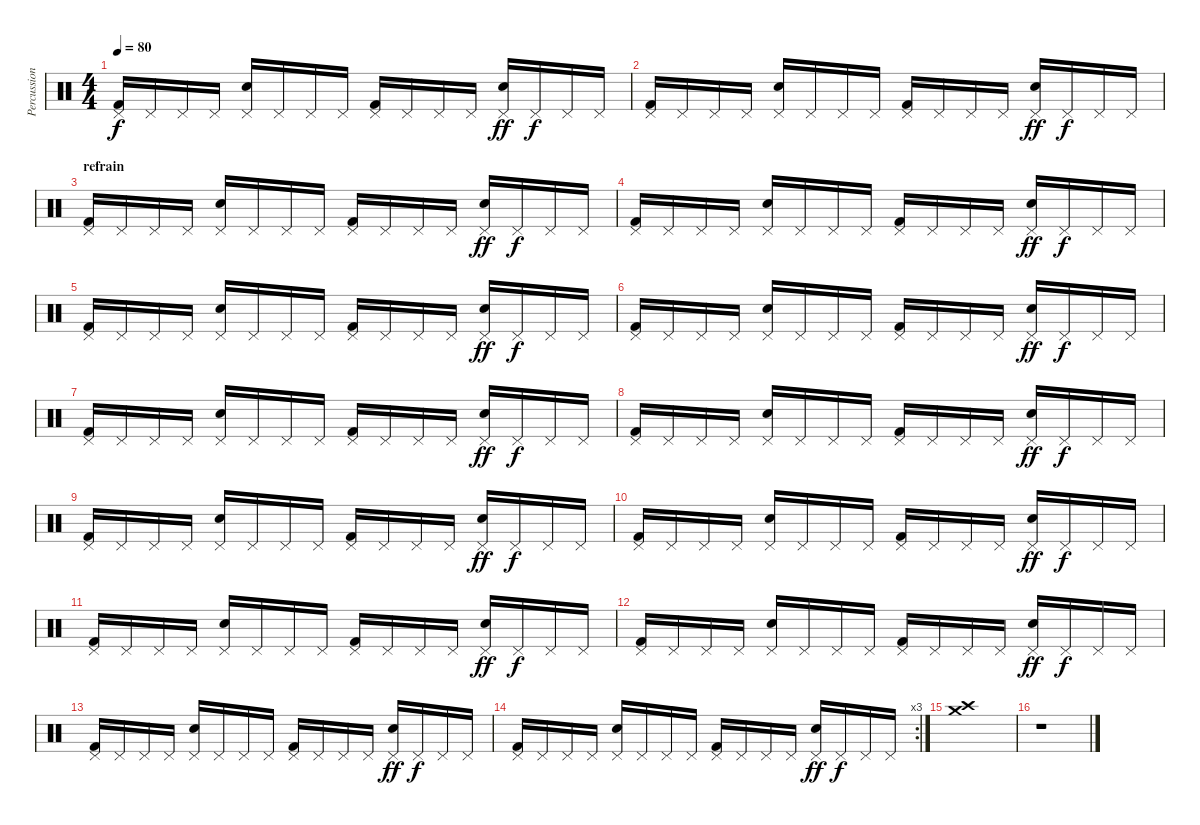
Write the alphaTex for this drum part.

\track ("Percussions" "Percussion") {instrument percussion}
\staff {score}
\articulation defaults
\ts (4 4)
\tempo 80
\clef neutral
\ks c
("Pedal Hi-Hat (hit)" "Kick (hit) 2").16{dy f} "Pedal Hi-Hat (hit)".16 "Pedal Hi-Hat (hit)".16 "Pedal Hi-Hat (hit)".16 ("Pedal Hi-Hat (hit)" "Electric Snare (hit)").16 "Pedal Hi-Hat (hit)".16 "Pedal Hi-Hat (hit)".16 "Pedal Hi-Hat (hit)".16 ("Pedal Hi-Hat (hit)" "Kick (hit) 2").16 "Pedal Hi-Hat (hit)".16 "Pedal Hi-Hat (hit)".16 "Pedal Hi-Hat (hit)".16 ("Pedal Hi-Hat (hit)" "Electric Snare (hit)").16{dy ff} "Pedal Hi-Hat (hit)".16{dy f} "Pedal Hi-Hat (hit)".16 "Pedal Hi-Hat (hit)".16 |
("Pedal Hi-Hat (hit)" "Kick (hit) 2").16 "Pedal Hi-Hat (hit)".16 "Pedal Hi-Hat (hit)".16 "Pedal Hi-Hat (hit)".16 ("Pedal Hi-Hat (hit)" "Electric Snare (hit)").16 "Pedal Hi-Hat (hit)".16 "Pedal Hi-Hat (hit)".16 "Pedal Hi-Hat (hit)".16 ("Pedal Hi-Hat (hit)" "Kick (hit) 2").16 "Pedal Hi-Hat (hit)".16 "Pedal Hi-Hat (hit)".16 "Pedal Hi-Hat (hit)".16 ("Pedal Hi-Hat (hit)" "Electric Snare (hit)").16{dy ff} "Pedal Hi-Hat (hit)".16{dy f} "Pedal Hi-Hat (hit)".16 "Pedal Hi-Hat (hit)".16 |
\section ("" "refrain")
("Pedal Hi-Hat (hit)" "Kick (hit) 2").16 "Pedal Hi-Hat (hit)".16 "Pedal Hi-Hat (hit)".16 "Pedal Hi-Hat (hit)".16 ("Pedal Hi-Hat (hit)" "Electric Snare (hit)").16 "Pedal Hi-Hat (hit)".16 "Pedal Hi-Hat (hit)".16 "Pedal Hi-Hat (hit)".16 ("Pedal Hi-Hat (hit)" "Kick (hit) 2").16 "Pedal Hi-Hat (hit)".16 "Pedal Hi-Hat (hit)".16 "Pedal Hi-Hat (hit)".16 ("Pedal Hi-Hat (hit)" "Electric Snare (hit)").16{dy ff} "Pedal Hi-Hat (hit)".16{dy f} "Pedal Hi-Hat (hit)".16 "Pedal Hi-Hat (hit)".16 |
("Pedal Hi-Hat (hit)" "Kick (hit) 2").16 "Pedal Hi-Hat (hit)".16 "Pedal Hi-Hat (hit)".16 "Pedal Hi-Hat (hit)".16 ("Pedal Hi-Hat (hit)" "Electric Snare (hit)").16 "Pedal Hi-Hat (hit)".16 "Pedal Hi-Hat (hit)".16 "Pedal Hi-Hat (hit)".16 ("Pedal Hi-Hat (hit)" "Kick (hit) 2").16 "Pedal Hi-Hat (hit)".16 "Pedal Hi-Hat (hit)".16 "Pedal Hi-Hat (hit)".16 ("Pedal Hi-Hat (hit)" "Electric Snare (hit)").16{dy ff} "Pedal Hi-Hat (hit)".16{dy f} "Pedal Hi-Hat (hit)".16 "Pedal Hi-Hat (hit)".16 |
("Pedal Hi-Hat (hit)" "Kick (hit) 2").16 "Pedal Hi-Hat (hit)".16 "Pedal Hi-Hat (hit)".16 "Pedal Hi-Hat (hit)".16 ("Pedal Hi-Hat (hit)" "Electric Snare (hit)").16 "Pedal Hi-Hat (hit)".16 "Pedal Hi-Hat (hit)".16 "Pedal Hi-Hat (hit)".16 ("Pedal Hi-Hat (hit)" "Kick (hit) 2").16 "Pedal Hi-Hat (hit)".16 "Pedal Hi-Hat (hit)".16 "Pedal Hi-Hat (hit)".16 ("Pedal Hi-Hat (hit)" "Electric Snare (hit)").16{dy ff} "Pedal Hi-Hat (hit)".16{dy f} "Pedal Hi-Hat (hit)".16 "Pedal Hi-Hat (hit)".16 |
("Pedal Hi-Hat (hit)" "Kick (hit) 2").16 "Pedal Hi-Hat (hit)".16 "Pedal Hi-Hat (hit)".16 "Pedal Hi-Hat (hit)".16 ("Pedal Hi-Hat (hit)" "Electric Snare (hit)").16 "Pedal Hi-Hat (hit)".16 "Pedal Hi-Hat (hit)".16 "Pedal Hi-Hat (hit)".16 ("Pedal Hi-Hat (hit)" "Kick (hit) 2").16 "Pedal Hi-Hat (hit)".16 "Pedal Hi-Hat (hit)".16 "Pedal Hi-Hat (hit)".16 ("Pedal Hi-Hat (hit)" "Electric Snare (hit)").16{dy ff} "Pedal Hi-Hat (hit)".16{dy f} "Pedal Hi-Hat (hit)".16 "Pedal Hi-Hat (hit)".16 |
("Pedal Hi-Hat (hit)" "Kick (hit) 2").16 "Pedal Hi-Hat (hit)".16 "Pedal Hi-Hat (hit)".16 "Pedal Hi-Hat (hit)".16 ("Pedal Hi-Hat (hit)" "Electric Snare (hit)").16 "Pedal Hi-Hat (hit)".16 "Pedal Hi-Hat (hit)".16 "Pedal Hi-Hat (hit)".16 ("Pedal Hi-Hat (hit)" "Kick (hit) 2").16 "Pedal Hi-Hat (hit)".16 "Pedal Hi-Hat (hit)".16 "Pedal Hi-Hat (hit)".16 ("Pedal Hi-Hat (hit)" "Electric Snare (hit)").16{dy ff} "Pedal Hi-Hat (hit)".16{dy f} "Pedal Hi-Hat (hit)".16 "Pedal Hi-Hat (hit)".16 |
("Pedal Hi-Hat (hit)" "Kick (hit) 2").16 "Pedal Hi-Hat (hit)".16 "Pedal Hi-Hat (hit)".16 "Pedal Hi-Hat (hit)".16 ("Pedal Hi-Hat (hit)" "Electric Snare (hit)").16 "Pedal Hi-Hat (hit)".16 "Pedal Hi-Hat (hit)".16 "Pedal Hi-Hat (hit)".16 ("Pedal Hi-Hat (hit)" "Kick (hit) 2").16 "Pedal Hi-Hat (hit)".16 "Pedal Hi-Hat (hit)".16 "Pedal Hi-Hat (hit)".16 ("Pedal Hi-Hat (hit)" "Electric Snare (hit)").16{dy ff} "Pedal Hi-Hat (hit)".16{dy f} "Pedal Hi-Hat (hit)".16 "Pedal Hi-Hat (hit)".16 |
("Pedal Hi-Hat (hit)" "Kick (hit) 2").16 "Pedal Hi-Hat (hit)".16 "Pedal Hi-Hat (hit)".16 "Pedal Hi-Hat (hit)".16 ("Pedal Hi-Hat (hit)" "Electric Snare (hit)").16 "Pedal Hi-Hat (hit)".16 "Pedal Hi-Hat (hit)".16 "Pedal Hi-Hat (hit)".16 ("Pedal Hi-Hat (hit)" "Kick (hit) 2").16 "Pedal Hi-Hat (hit)".16 "Pedal Hi-Hat (hit)".16 "Pedal Hi-Hat (hit)".16 ("Pedal Hi-Hat (hit)" "Electric Snare (hit)").16{dy ff} "Pedal Hi-Hat (hit)".16{dy f} "Pedal Hi-Hat (hit)".16 "Pedal Hi-Hat (hit)".16 |
("Pedal Hi-Hat (hit)" "Kick (hit) 2").16 "Pedal Hi-Hat (hit)".16 "Pedal Hi-Hat (hit)".16 "Pedal Hi-Hat (hit)".16 ("Pedal Hi-Hat (hit)" "Electric Snare (hit)").16 "Pedal Hi-Hat (hit)".16 "Pedal Hi-Hat (hit)".16 "Pedal Hi-Hat (hit)".16 ("Pedal Hi-Hat (hit)" "Kick (hit) 2").16 "Pedal Hi-Hat (hit)".16 "Pedal Hi-Hat (hit)".16 "Pedal Hi-Hat (hit)".16 ("Pedal Hi-Hat (hit)" "Electric Snare (hit)").16{dy ff} "Pedal Hi-Hat (hit)".16{dy f} "Pedal Hi-Hat (hit)".16 "Pedal Hi-Hat (hit)".16 |
("Pedal Hi-Hat (hit)" "Kick (hit) 2").16 "Pedal Hi-Hat (hit)".16 "Pedal Hi-Hat (hit)".16 "Pedal Hi-Hat (hit)".16 ("Pedal Hi-Hat (hit)" "Electric Snare (hit)").16 "Pedal Hi-Hat (hit)".16 "Pedal Hi-Hat (hit)".16 "Pedal Hi-Hat (hit)".16 ("Pedal Hi-Hat (hit)" "Kick (hit) 2").16 "Pedal Hi-Hat (hit)".16 "Pedal Hi-Hat (hit)".16 "Pedal Hi-Hat (hit)".16 ("Pedal Hi-Hat (hit)" "Electric Snare (hit)").16{dy ff} "Pedal Hi-Hat (hit)".16{dy f} "Pedal Hi-Hat (hit)".16 "Pedal Hi-Hat (hit)".16 |
("Pedal Hi-Hat (hit)" "Kick (hit) 2").16 "Pedal Hi-Hat (hit)".16 "Pedal Hi-Hat (hit)".16 "Pedal Hi-Hat (hit)".16 ("Pedal Hi-Hat (hit)" "Electric Snare (hit)").16 "Pedal Hi-Hat (hit)".16 "Pedal Hi-Hat (hit)".16 "Pedal Hi-Hat (hit)".16 ("Pedal Hi-Hat (hit)" "Kick (hit) 2").16 "Pedal Hi-Hat (hit)".16 "Pedal Hi-Hat (hit)".16 "Pedal Hi-Hat (hit)".16 ("Pedal Hi-Hat (hit)" "Electric Snare (hit)").16{dy ff} "Pedal Hi-Hat (hit)".16{dy f} "Pedal Hi-Hat (hit)".16 "Pedal Hi-Hat (hit)".16 |
("Pedal Hi-Hat (hit)" "Kick (hit) 2").16 "Pedal Hi-Hat (hit)".16 "Pedal Hi-Hat (hit)".16 "Pedal Hi-Hat (hit)".16 ("Pedal Hi-Hat (hit)" "Electric Snare (hit)").16 "Pedal Hi-Hat (hit)".16 "Pedal Hi-Hat (hit)".16 "Pedal Hi-Hat (hit)".16 ("Pedal Hi-Hat (hit)" "Kick (hit) 2").16 "Pedal Hi-Hat (hit)".16 "Pedal Hi-Hat (hit)".16 "Pedal Hi-Hat (hit)".16 ("Pedal Hi-Hat (hit)" "Electric Snare (hit)").16{dy ff} "Pedal Hi-Hat (hit)".16{dy f} "Pedal Hi-Hat (hit)".16 "Pedal Hi-Hat (hit)".16 |
\rc 3
("Pedal Hi-Hat (hit)" "Kick (hit) 2").16 "Pedal Hi-Hat (hit)".16 "Pedal Hi-Hat (hit)".16 "Pedal Hi-Hat (hit)".16 ("Pedal Hi-Hat (hit)" "Electric Snare (hit)").16 "Pedal Hi-Hat (hit)".16 "Pedal Hi-Hat (hit)".16 "Pedal Hi-Hat (hit)".16 ("Pedal Hi-Hat (hit)" "Kick (hit) 2").16 "Pedal Hi-Hat (hit)".16 "Pedal Hi-Hat (hit)".16 "Pedal Hi-Hat (hit)".16 ("Pedal Hi-Hat (hit)" "Electric Snare (hit)").16{dy ff} "Pedal Hi-Hat (hit)".16{dy f} "Pedal Hi-Hat (hit)".16 "Pedal Hi-Hat (hit)".16 |
("Crash high (hit)" "Crash medium (hit)").1 |
r.1
